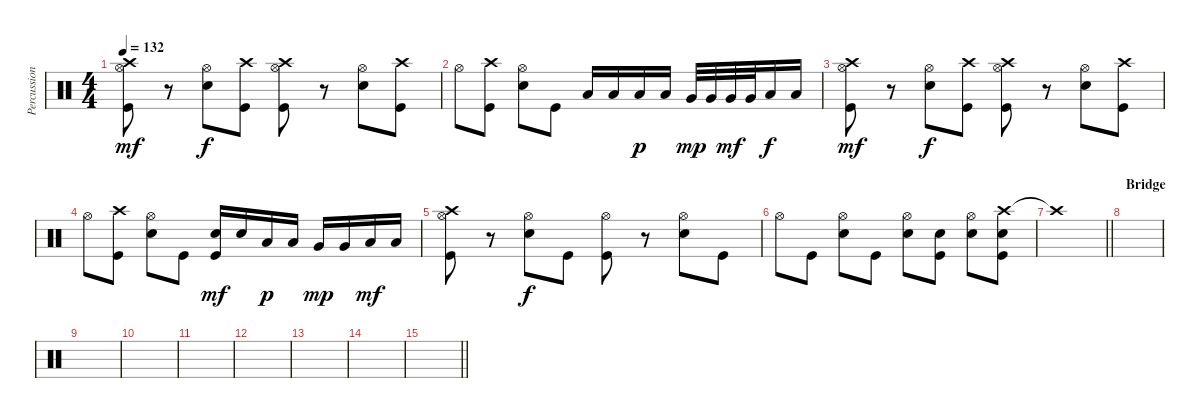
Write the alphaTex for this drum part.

\track ("Percussion" "Percussion") {instrument percussion}
\staff {score}
\articulation defaults
\ts (4 4)
\tempo 132
\clef neutral
\ks c
("Crash high (hit)" "Hi-Hat (open)" "Kick (hit)").8{dy mf} r.8 ("Hi-Hat (open)" "Snare (hit) 2").8{dy f} ("Crash high (hit)" "Kick (hit)").8 ("Crash high (hit)" "Hi-Hat (open)" "Kick (hit)").8 r.8 ("Hi-Hat (open)" "Snare (hit) 2").8 ("Crash high (hit)" "Kick (hit)").8 |
"Hi-Hat (open)".8 ("Crash high (hit)" "Kick (hit)").8 ("Hi-Hat (open)" "Snare (hit) 2").8 "Kick (hit)".8 "Low Tom (hit)".16 "Low Tom (hit)".16 "Low Tom (hit)".16{dy p} "Low Tom (hit)".16 "Very Low Tom (hit)".32{dy mp} "Very Low Tom (hit)".32 "Very Low Tom (hit)".32{dy mf} "Very Low Tom (hit)".32 "Low Floor Tom (hit)".16{dy f} "Low Floor Tom (hit)".16 |
("Crash high (hit)" "Hi-Hat (open)" "Kick (hit)").8{dy mf} r.8 ("Hi-Hat (open)" "Snare (hit) 2").8{dy f} ("Crash high (hit)" "Kick (hit)").8 ("Crash high (hit)" "Hi-Hat (open)" "Kick (hit)").8 r.8 ("Hi-Hat (open)" "Snare (hit) 2").8 ("Crash high (hit)" "Kick (hit)").8 |
"Hi-Hat (open)".8 ("Crash high (hit)" "Kick (hit)").8 ("Hi-Hat (open)" "Snare (hit) 2").8 "Kick (hit)".8 ("Snare (hit) 2" "Kick (hit)").16{dy mf} "Snare (hit) 2".16 "Low Tom (hit)".16{dy p} "Low Tom (hit)".16 "Very Low Tom (hit)".16{dy mp} "Very Low Tom (hit)".16 "Low Floor Tom (hit)".16{dy mf} "Low Floor Tom (hit)".16 |
("Crash high (hit)" "Hi-Hat (open)" "Kick (hit)").8 r.8 ("Hi-Hat (open)" "Snare (hit) 2").8{dy f} "Kick (hit)".8 ("Hi-Hat (open)" "Kick (hit)").8 r.8 ("Hi-Hat (open)" "Snare (hit) 2").8 "Kick (hit)".8 |
"Hi-Hat (open)".8 "Kick (hit)".8 ("Hi-Hat (open)" "Snare (hit) 2").8 "Kick (hit)".8 ("Hi-Hat (open)" "Snare (hit) 2").8 ("Snare (hit) 2" "Kick (hit)").8 ("Hi-Hat (open)" "Snare (hit) 2").8 ("Crash high (hit)" "Snare (hit) 2" "Kick (hit)").8 |
\barLineRight lightlight "Crash high (hit)"{t}.1
|
\section ("" "Bridge")
|
|
|
|
|
|
|
\barLineRight lightlight
